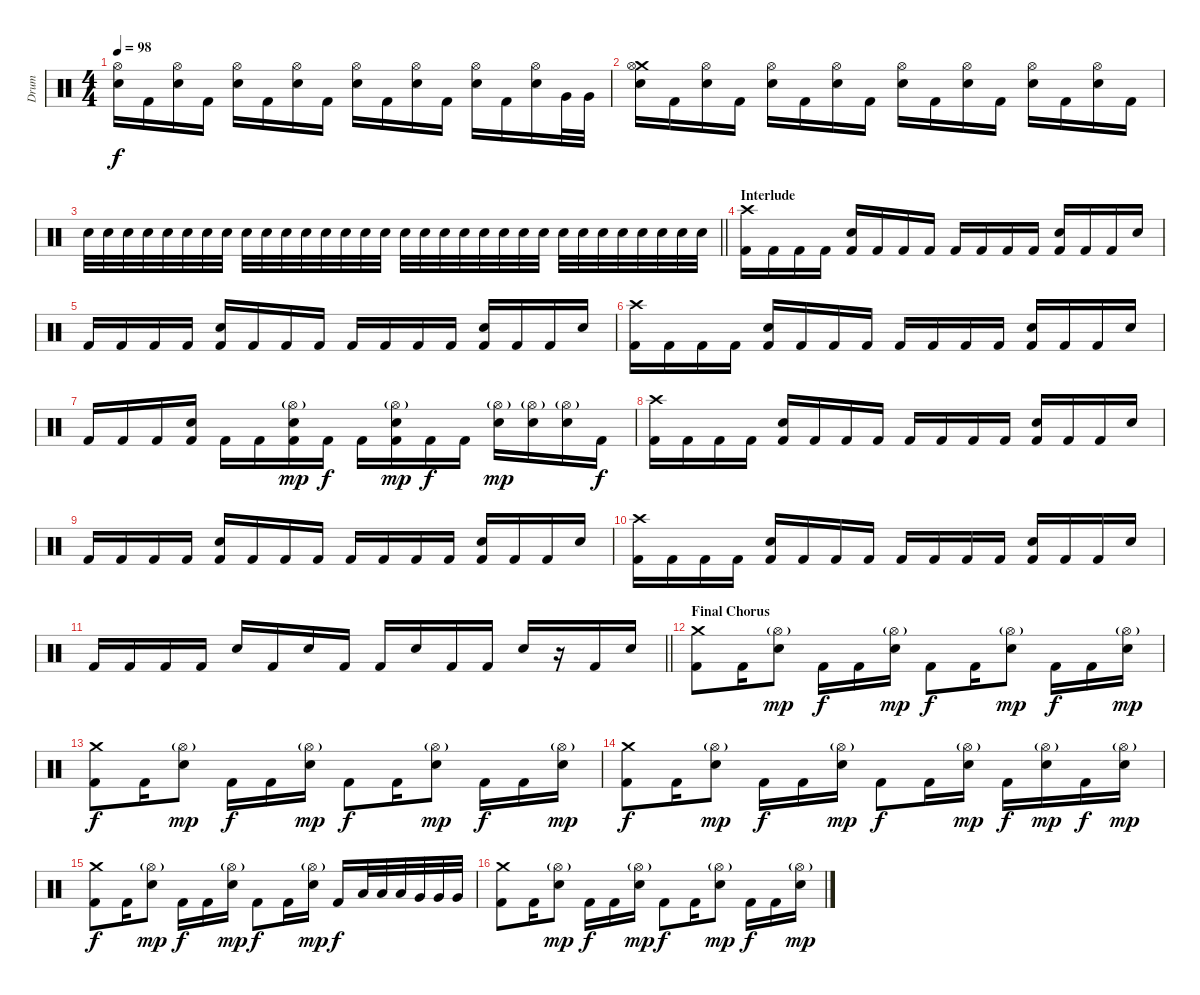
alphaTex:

\track ("Drum" "Drum") {instrument percussion}
\staff {score}
\articulation defaults
\ts (4 4)
\tempo 98
\clef neutral
\ks c
("Hi-Hat (open)" "Electric Snare (hit)").16{dy f} "Kick (hit) 2".16 ("Hi-Hat (open)" "Electric Snare (hit)").16 "Kick (hit) 2".16 ("Hi-Hat (open)" "Electric Snare (hit)").16 "Kick (hit) 2".16 ("Hi-Hat (open)" "Electric Snare (hit)").16 "Kick (hit) 2".16 ("Hi-Hat (open)" "Electric Snare (hit)").16 "Kick (hit) 2".16 ("Hi-Hat (open)" "Electric Snare (hit)").16 "Kick (hit) 2".16 ("Hi-Hat (open)" "Electric Snare (hit)").16 "Kick (hit) 2".16 ("Hi-Hat (open)" "Electric Snare (hit)").16 "Very Low Tom (hit)".32 "Very Low Tom (hit)".32 |
("Crash medium (hit)" "Hi-Hat (open)" "Electric Snare (hit)").16 "Kick (hit) 2".16 ("Hi-Hat (open)" "Electric Snare (hit)").16 "Kick (hit) 2".16 ("Hi-Hat (open)" "Electric Snare (hit)").16 "Kick (hit) 2".16 ("Hi-Hat (open)" "Electric Snare (hit)").16 "Kick (hit) 2".16 ("Hi-Hat (open)" "Electric Snare (hit)").16 "Kick (hit) 2".16 ("Hi-Hat (open)" "Electric Snare (hit)").16 "Kick (hit) 2".16 ("Hi-Hat (open)" "Electric Snare (hit)").16 "Kick (hit) 2".16 ("Hi-Hat (open)" "Electric Snare (hit)").16 "Kick (hit) 2".16 |
\barLineRight lightlight "Electric Snare (hit)".32 "Electric Snare (hit)".32 "Electric Snare (hit)".32 "Electric Snare (hit)".32 "Electric Snare (hit)".32 "Electric Snare (hit)".32 "Electric Snare (hit)".32 "Electric Snare (hit)".32 "Electric Snare (hit)".32 "Electric Snare (hit)".32 "Electric Snare (hit)".32 "Electric Snare (hit)".32 "Electric Snare (hit)".32 "Electric Snare (hit)".32 "Electric Snare (hit)".32 "Electric Snare (hit)".32 "Electric Snare (hit)".32 "Electric Snare (hit)".32 "Electric Snare (hit)".32 "Electric Snare (hit)".32 "Electric Snare (hit)".32 "Electric Snare (hit)".32 "Electric Snare (hit)".32 "Electric Snare (hit)".32 "Electric Snare (hit)".32 "Electric Snare (hit)".32 "Electric Snare (hit)".32 "Electric Snare (hit)".32 "Electric Snare (hit)".32 "Electric Snare (hit)".32 "Electric Snare (hit)".32 "Electric Snare (hit)".32
|
\section ("" "Interlude")
("Crash high (hit)" "Kick (hit) 2").16 "Kick (hit) 2".16 "Kick (hit) 2".16 "Kick (hit) 2".16 ("Electric Snare (hit)" "Kick (hit) 2").16 "Kick (hit) 2".16 "Kick (hit) 2".16 "Kick (hit) 2".16 "Kick (hit) 2".16 "Kick (hit) 2".16 "Kick (hit) 2".16 "Kick (hit) 2".16 ("Electric Snare (hit)" "Kick (hit) 2").16 "Kick (hit) 2".16 "Kick (hit) 2".16 "Electric Snare (hit)".16 |
"Kick (hit) 2".16 "Kick (hit) 2".16 "Kick (hit) 2".16 "Kick (hit) 2".16 ("Electric Snare (hit)" "Kick (hit) 2").16 "Kick (hit) 2".16 "Kick (hit) 2".16 "Kick (hit) 2".16 "Kick (hit) 2".16 "Kick (hit) 2".16 "Kick (hit) 2".16 "Kick (hit) 2".16 ("Electric Snare (hit)" "Kick (hit) 2").16 "Kick (hit) 2".16 "Kick (hit) 2".16 "Electric Snare (hit)".16 |
("Crash high (hit)" "Kick (hit) 2").16 "Kick (hit) 2".16 "Kick (hit) 2".16 "Kick (hit) 2".16 ("Electric Snare (hit)" "Kick (hit) 2").16 "Kick (hit) 2".16 "Kick (hit) 2".16 "Kick (hit) 2".16 "Kick (hit) 2".16 "Kick (hit) 2".16 "Kick (hit) 2".16 "Kick (hit) 2".16 ("Electric Snare (hit)" "Kick (hit) 2").16 "Kick (hit) 2".16 "Kick (hit) 2".16 "Electric Snare (hit)".16 |
"Kick (hit) 2".16 "Kick (hit) 2".16 "Kick (hit) 2".16 ("Electric Snare (hit)" "Kick (hit) 2").16 "Kick (hit) 2".16 "Kick (hit) 2".16 ("Hi-Hat (open)"{g} "Electric Snare (hit)" "Kick (hit) 2").16{dy mp} "Kick (hit) 2".16{dy f} "Kick (hit) 2".16 ("Hi-Hat (open)"{g} "Electric Snare (hit)" "Kick (hit) 2").16{dy mp} "Kick (hit) 2".16{dy f} "Kick (hit) 2".16 ("Hi-Hat (open)"{g} "Electric Snare (hit)").16{dy mp} ("Hi-Hat (open)"{g} "Electric Snare (hit)").16 ("Hi-Hat (open)"{g} "Electric Snare (hit)").16 "Kick (hit) 2".16{dy f} |
("Crash high (hit)" "Kick (hit) 2").16 "Kick (hit) 2".16 "Kick (hit) 2".16 "Kick (hit) 2".16 ("Electric Snare (hit)" "Kick (hit) 2").16 "Kick (hit) 2".16 "Kick (hit) 2".16 "Kick (hit) 2".16 "Kick (hit) 2".16 "Kick (hit) 2".16 "Kick (hit) 2".16 "Kick (hit) 2".16 ("Electric Snare (hit)" "Kick (hit) 2").16 "Kick (hit) 2".16 "Kick (hit) 2".16 "Electric Snare (hit)".16 |
"Kick (hit) 2".16 "Kick (hit) 2".16 "Kick (hit) 2".16 "Kick (hit) 2".16 ("Electric Snare (hit)" "Kick (hit) 2").16 "Kick (hit) 2".16 "Kick (hit) 2".16 "Kick (hit) 2".16 "Kick (hit) 2".16 "Kick (hit) 2".16 "Kick (hit) 2".16 "Kick (hit) 2".16 ("Electric Snare (hit)" "Kick (hit) 2").16 "Kick (hit) 2".16 "Kick (hit) 2".16 "Electric Snare (hit)".16 |
("Crash high (hit)" "Kick (hit) 2").16 "Kick (hit) 2".16 "Kick (hit) 2".16 "Kick (hit) 2".16 ("Electric Snare (hit)" "Kick (hit) 2").16 "Kick (hit) 2".16 "Kick (hit) 2".16 "Kick (hit) 2".16 "Kick (hit) 2".16 "Kick (hit) 2".16 "Kick (hit) 2".16 "Kick (hit) 2".16 ("Electric Snare (hit)" "Kick (hit) 2").16 "Kick (hit) 2".16 "Kick (hit) 2".16 "Electric Snare (hit)".16 |
\barLineRight lightlight "Kick (hit) 2".16 "Kick (hit) 2".16 "Kick (hit) 2".16 "Kick (hit) 2".16 "Electric Snare (hit)".16 "Kick (hit) 2".16 "Electric Snare (hit)".16 "Kick (hit) 2".16 "Kick (hit) 2".16 "Electric Snare (hit)".16 "Kick (hit) 2".16 "Kick (hit) 2".16 "Electric Snare (hit)".16
r.16 "Kick (hit) 2".16 "Electric Snare (hit)".16 |
\section ("" "Final Chorus")
("Crash medium (hit)" "Kick (hit) 2").8 "Kick (hit) 2".16 ("Hi-Hat (open)"{g} "Electric Snare (hit)").8{dy mp} "Kick (hit) 2".16{dy f} "Kick (hit) 2".16 ("Hi-Hat (open)"{g} "Electric Snare (hit)").16{dy mp} "Kick (hit) 2".8{dy f} "Kick (hit) 2".16 ("Hi-Hat (open)"{g} "Electric Snare (hit)").8{dy mp} "Kick (hit) 2".16{dy f} "Kick (hit) 2".16 ("Hi-Hat (open)"{g} "Electric Snare (hit)").16{dy mp} |
("Crash medium (hit)" "Kick (hit) 2").8{dy f} "Kick (hit) 2".16 ("Hi-Hat (open)"{g} "Electric Snare (hit)").8{dy mp} "Kick (hit) 2".16{dy f} "Kick (hit) 2".16 ("Hi-Hat (open)"{g} "Electric Snare (hit)").16{dy mp} "Kick (hit) 2".8{dy f} "Kick (hit) 2".16 ("Hi-Hat (open)"{g} "Electric Snare (hit)").8{dy mp} "Kick (hit) 2".16{dy f} "Kick (hit) 2".16 ("Hi-Hat (open)"{g} "Electric Snare (hit)").16{dy mp} |
("Crash medium (hit)" "Kick (hit) 2").8{dy f} "Kick (hit) 2".16 ("Hi-Hat (open)"{g} "Electric Snare (hit)").8{dy mp} "Kick (hit) 2".16{dy f} "Kick (hit) 2".16 ("Hi-Hat (open)"{g} "Electric Snare (hit)").16{dy mp} "Kick (hit) 2".8{dy f} "Kick (hit) 2".16 ("Hi-Hat (open)"{g} "Electric Snare (hit)").16{dy mp} "Kick (hit) 2".16{dy f} ("Hi-Hat (open)"{g} "Electric Snare (hit)").16{dy mp} "Kick (hit) 2".16{dy f} ("Hi-Hat (open)"{g} "Electric Snare (hit)").16{dy mp} |
("Crash medium (hit)" "Kick (hit) 2").8{dy f} "Kick (hit) 2".16 ("Hi-Hat (open)"{g} "Electric Snare (hit)").8{dy mp} "Kick (hit) 2".16{dy f} "Kick (hit) 2".16 ("Hi-Hat (open)"{g} "Electric Snare (hit)").16{dy mp} "Kick (hit) 2".8{dy f} "Kick (hit) 2".16 ("Hi-Hat (open)"{g} "Electric Snare (hit)").16{dy mp} "Kick (hit) 2".16{dy f} "Low Tom (hit)".32 "Low Tom (hit)".32 "Low Tom (hit)".32 "Very Low Tom (hit)".32 "Very Low Tom (hit)".32 "Very Low Tom (hit)".32 |
("Crash medium (hit)" "Kick (hit) 2").8 "Kick (hit) 2".16 ("Hi-Hat (open)"{g} "Electric Snare (hit)").8{dy mp} "Kick (hit) 2".16{dy f} "Kick (hit) 2".16 ("Hi-Hat (open)"{g} "Electric Snare (hit)").16{dy mp} "Kick (hit) 2".8{dy f} "Kick (hit) 2".16 ("Hi-Hat (open)"{g} "Electric Snare (hit)").8{dy mp} "Kick (hit) 2".16{dy f} "Kick (hit) 2".16 ("Hi-Hat (open)"{g} "Electric Snare (hit)").16{dy mp}
